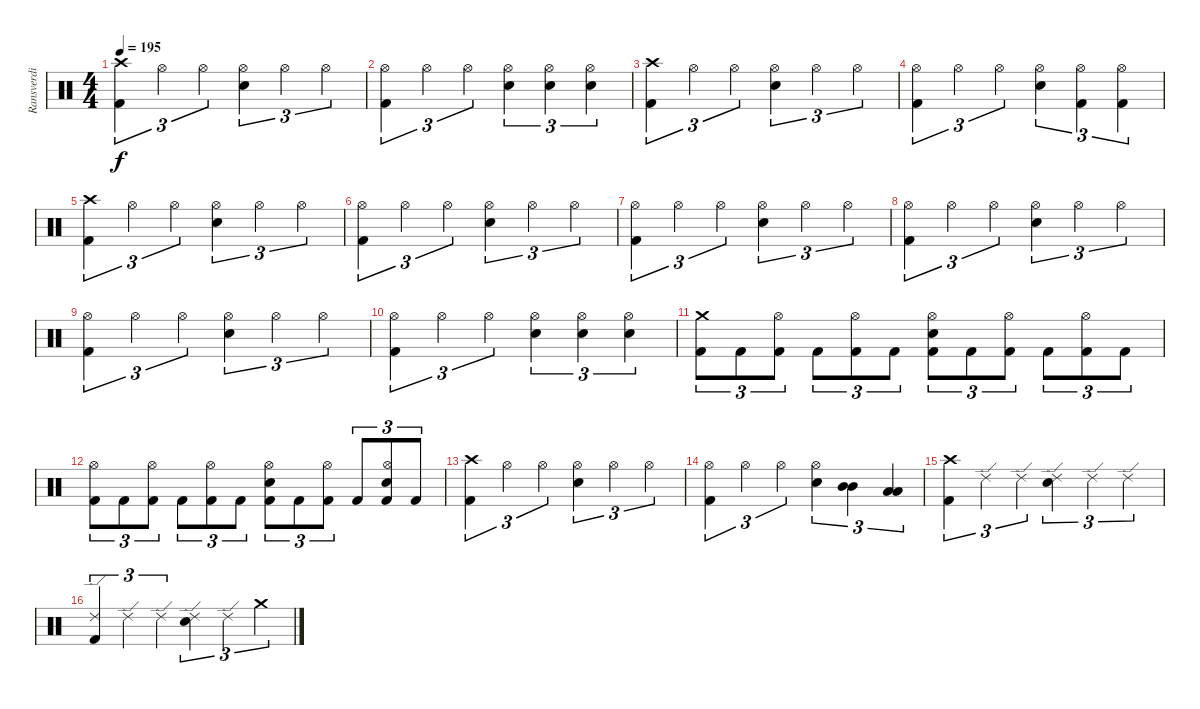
\track ("Ransverdi" "Ransverdi") {instrument percussion}
\staff {score}
\articulation defaults
\ts (4 4)
\tempo 195
\clef neutral
\ks c
("Crash high (hit)" "Kick (hit) 2").4{tu (3 2) dy f} "Hi-Hat (open)".4{tu (3 2)} "Hi-Hat (open)".4{tu (3 2)} ("Hi-Hat (open)" "Snare (hit) 2").4{tu (3 2)} "Hi-Hat (open)".4{tu (3 2)} "Hi-Hat (open)".4{tu (3 2)} |
("Hi-Hat (open)" "Kick (hit) 2").4{tu (3 2)} "Hi-Hat (open)".4{tu (3 2)} "Hi-Hat (open)".4{tu (3 2)} ("Hi-Hat (open)" "Snare (hit) 2").4{tu (3 2)} ("Hi-Hat (open)" "Snare (hit) 2").4{tu (3 2)} ("Hi-Hat (open)" "Snare (hit) 2").4{tu (3 2)} |
("Crash high (hit)" "Kick (hit) 2").4{tu (3 2)} "Hi-Hat (open)".4{tu (3 2)} "Hi-Hat (open)".4{tu (3 2)} ("Hi-Hat (open)" "Snare (hit) 2").4{tu (3 2)} "Hi-Hat (open)".4{tu (3 2)} "Hi-Hat (open)".4{tu (3 2)} |
("Hi-Hat (open)" "Kick (hit) 2").4{tu (3 2)} "Hi-Hat (open)".4{tu (3 2)} "Hi-Hat (open)".4{tu (3 2)} ("Hi-Hat (open)" "Snare (hit) 2").4{tu (3 2)} ("Hi-Hat (open)" "Kick (hit) 2").4{tu (3 2)} ("Hi-Hat (open)" "Kick (hit) 2").4{tu (3 2)} |
("Crash high (hit)" "Kick (hit) 2").4{tu (3 2)} "Hi-Hat (open)".4{tu (3 2)} "Hi-Hat (open)".4{tu (3 2)} ("Hi-Hat (open)" "Snare (hit) 2").4{tu (3 2)} "Hi-Hat (open)".4{tu (3 2)} "Hi-Hat (open)".4{tu (3 2)} |
("Hi-Hat (open)" "Kick (hit) 2").4{tu (3 2)} "Hi-Hat (open)".4{tu (3 2)} "Hi-Hat (open)".4{tu (3 2)} ("Hi-Hat (open)" "Snare (hit) 2").4{tu (3 2)} "Hi-Hat (open)".4{tu (3 2)} "Hi-Hat (open)".4{tu (3 2)} |
("Hi-Hat (open)" "Kick (hit) 2").4{tu (3 2)} "Hi-Hat (open)".4{tu (3 2)} "Hi-Hat (open)".4{tu (3 2)} ("Hi-Hat (open)" "Snare (hit) 2").4{tu (3 2)} "Hi-Hat (open)".4{tu (3 2)} "Hi-Hat (open)".4{tu (3 2)} |
("Hi-Hat (open)" "Kick (hit) 2").4{tu (3 2)} "Hi-Hat (open)".4{tu (3 2)} "Hi-Hat (open)".4{tu (3 2)} ("Hi-Hat (open)" "Snare (hit) 2").4{tu (3 2)} "Hi-Hat (open)".4{tu (3 2)} "Hi-Hat (open)".4{tu (3 2)} |
("Hi-Hat (open)" "Kick (hit) 2").4{tu (3 2)} "Hi-Hat (open)".4{tu (3 2)} "Hi-Hat (open)".4{tu (3 2)} ("Hi-Hat (open)" "Snare (hit) 2").4{tu (3 2)} "Hi-Hat (open)".4{tu (3 2)} "Hi-Hat (open)".4{tu (3 2)} |
("Hi-Hat (open)" "Kick (hit) 2").4{tu (3 2)} "Hi-Hat (open)".4{tu (3 2)} "Hi-Hat (open)".4{tu (3 2)} ("Hi-Hat (open)" "Snare (hit) 2").4{tu (3 2)} ("Hi-Hat (open)" "Snare (hit) 2").4{tu (3 2)} ("Hi-Hat (open)" "Snare (hit) 2").4{tu (3 2)} |
("Crash medium (hit)" "Kick (hit) 2").8{tu (3 2)} "Kick (hit) 2".8{tu (3 2)} ("Hi-Hat (open)" "Kick (hit) 2").8{tu (3 2)} "Kick (hit) 2".8{tu (3 2)} ("Hi-Hat (open)" "Kick (hit) 2").8{tu (3 2)} "Kick (hit) 2".8{tu (3 2)} ("Hi-Hat (open)" "Snare (hit) 2" "Kick (hit) 2").8{tu (3 2)} "Kick (hit) 2".8{tu (3 2)} ("Hi-Hat (open)" "Kick (hit) 2").8{tu (3 2)} "Kick (hit) 2".8{tu (3 2)} ("Hi-Hat (open)" "Kick (hit) 2").8{tu (3 2)} "Kick (hit) 2".8{tu (3 2)} |
("Hi-Hat (open)" "Kick (hit) 2").8{tu (3 2)} "Kick (hit) 2".8{tu (3 2)} ("Hi-Hat (open)" "Kick (hit) 2").8{tu (3 2)} "Kick (hit) 2".8{tu (3 2)} ("Hi-Hat (open)" "Kick (hit) 2").8{tu (3 2)} "Kick (hit) 2".8{tu (3 2)} ("Hi-Hat (open)" "Snare (hit) 2" "Kick (hit) 2").8{tu (3 2)} "Kick (hit) 2".8{tu (3 2)} ("Hi-Hat (open)" "Kick (hit) 2").8{tu (3 2)} "Kick (hit) 2".8{tu (3 2)} ("Hi-Hat (open)" "Snare (hit) 2" "Kick (hit) 2").8{tu (3 2)} "Kick (hit) 2".8{tu (3 2)} |
("Crash high (hit)" "Kick (hit) 2").4{tu (3 2)} "Hi-Hat (open)".4{tu (3 2)} "Hi-Hat (open)".4{tu (3 2)} ("Hi-Hat (open)" "Snare (hit) 2").4{tu (3 2)} "Hi-Hat (open)".4{tu (3 2)} "Hi-Hat (open)".4{tu (3 2)} |
("Hi-Hat (open)" "Kick (hit) 2").4{tu (3 2)} "Hi-Hat (open)".4{tu (3 2)} "Hi-Hat (open)".4{tu (3 2)} ("Hi-Hat (open)" "Snare (hit) 2").4{tu (3 2)} ("Mid Tom (hit)" "Mid Tom (hit)").4{tu (3 2)} ("Low Tom (hit)" "Low Tom (hit)").4{tu (3 2)} |
("Crash high (hit)" "Kick (hit) 2").4{tu (3 2)} "Ride (edge) 2".4{tu (3 2)} "Ride (edge) 2".4{tu (3 2)} ("Ride (edge) 2" "Snare (hit) 2").4{tu (3 2)} "Ride (edge) 2".4{tu (3 2)} "Ride (edge) 2".4{tu (3 2)} |
("Ride (edge) 2" "Kick (hit) 2").4{tu (3 2)} "Ride (edge) 2".4{tu (3 2)} "Ride (edge) 2".4{tu (3 2)} ("Ride (edge) 2" "Snare (hit) 2").4{tu (3 2)} "Ride (edge) 2".4{tu (3 2)} "Crash medium (hit)".4{tu (3 2)}
